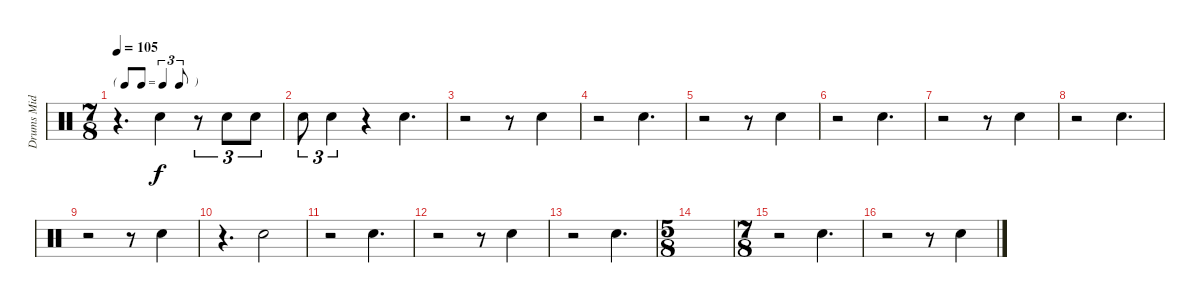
\track ("Drums Mid" "Drums Mid") {instrument percussion}
\staff {score}
\articulation defaults
\ts (7 8)
\tf triplet8th
\tempo 105
\clef neutral
\ks c
r.4{d dy f} "Electric Snare (hit)".4 r.8{tu (3 2)} "Snare (hit) 2".8{tu (3 2)} "Snare (hit) 2".8{tu (3 2)} |
"Snare (hit) 2".8{tu (3 2)} "Snare (hit) 2".4{tu (3 2)} r.4 "Snare (hit) 2".4{d} |
r.2 r.8 "Snare (hit) 2".4 |
r.2 "Snare (hit) 2".4{d} |
r.2 r.8 "Snare (hit) 2".4 |
r.2 "Snare (hit) 2".4{d} |
r.2 r.8 "Snare (hit) 2".4 |
r.2 "Snare (hit) 2".4{d} |
r.2 r.8 "Snare (hit) 2".4 |
r.4{d} "Electric Snare (hit)".2 |
r.2 "Snare (hit) 2".4{d} |
r.2 r.8 "Snare (hit) 2".4 |
r.2 "Snare (hit) 2".4{d} |
\ts (5 8)
|
\ts (7 8)
r.2 "Snare (hit) 2".4{d} |
r.2 r.8 "Snare (hit) 2".4
